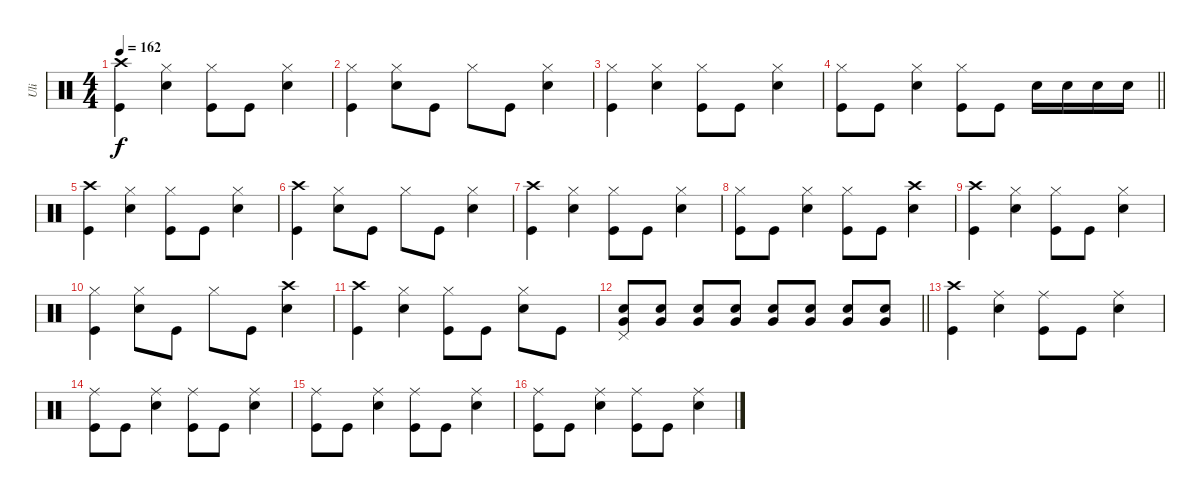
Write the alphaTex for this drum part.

\track ("Uli" "Uli") {instrument percussion}
\staff {score}
\articulation defaults
\ts (4 4)
\tempo 162
\clef neutral
\ks aminor
("Crash high (hit)" "Kick (hit)").4{dy f} ("Hi-Hat (closed)" "Snare (hit) 2").4 ("Hi-Hat (closed)" "Kick (hit)").8 "Kick (hit)".8 ("Hi-Hat (closed)" "Snare (hit) 2").4 |
("Hi-Hat (closed)" "Kick (hit)").4 ("Hi-Hat (closed)" "Snare (hit) 2").8 "Kick (hit)".8 "Hi-Hat (closed)".8 "Kick (hit)".8 ("Hi-Hat (closed)" "Snare (hit) 2").4 |
("Hi-Hat (closed)" "Kick (hit)").4 ("Hi-Hat (closed)" "Snare (hit) 2").4 ("Hi-Hat (closed)" "Kick (hit)").8 "Kick (hit)".8 ("Hi-Hat (closed)" "Snare (hit) 2").4 |
\barLineRight lightlight
("Hi-Hat (closed)" "Kick (hit)").8 "Kick (hit)".8 ("Hi-Hat (closed)" "Snare (hit) 2").4 ("Hi-Hat (closed)" "Kick (hit)").8 "Kick (hit)".8 "Snare (hit) 2".16 "Snare (hit) 2".16 "Snare (hit) 2".16 "Snare (hit) 2".16 |
("Crash high (hit)" "Kick (hit)").4 ("Hi-Hat (closed)" "Snare (hit) 2").4 ("Hi-Hat (closed)" "Kick (hit)").8 "Kick (hit)".8 ("Hi-Hat (closed)" "Snare (hit) 2").4 |
("Crash high (hit)" "Kick (hit)").4 ("Hi-Hat (closed)" "Snare (hit) 2").8 "Kick (hit)".8 "Hi-Hat (closed)".8 "Kick (hit)".8 ("Hi-Hat (closed)" "Snare (hit) 2").4 |
("Crash high (hit)" "Kick (hit)").4 ("Hi-Hat (closed)" "Snare (hit) 2").4 ("Hi-Hat (closed)" "Kick (hit)").8 "Kick (hit)".8 ("Hi-Hat (closed)" "Snare (hit) 2").4 |
("Hi-Hat (closed)" "Kick (hit)").8 "Kick (hit)".8 ("Hi-Hat (closed)" "Snare (hit) 2").4 ("Hi-Hat (closed)" "Kick (hit)").8 "Kick (hit)".8 ("Crash high (hit)" "Snare (hit) 2").4 |
("Crash high (hit)" "Kick (hit)").4 ("Hi-Hat (closed)" "Snare (hit) 2").4 ("Hi-Hat (closed)" "Kick (hit)").8 "Kick (hit)".8 ("Hi-Hat (closed)" "Snare (hit) 2").4 |
("Hi-Hat (closed)" "Kick (hit)").4 ("Hi-Hat (closed)" "Snare (hit) 2").8 "Kick (hit)".8 "Hi-Hat (closed)".8 "Kick (hit)".8 ("Crash high (hit)" "Snare (hit) 2").4 |
("Crash high (hit)" "Kick (hit)").4 ("Hi-Hat (closed)" "Snare (hit) 2").4 ("Hi-Hat (closed)" "Kick (hit)").8 "Kick (hit)".8 ("Hi-Hat (closed)" "Snare (hit) 2").8 "Kick (hit)".8 |
\barLineRight lightlight
("Snare (hit) 2" "Very Low Tom (hit)" "Pedal Hi-Hat (hit)").8 ("Snare (hit) 2" "Very Low Tom (hit)").8 ("Snare (hit) 2" "Very Low Tom (hit)").8 ("Snare (hit) 2" "Very Low Tom (hit)").8 ("Snare (hit) 2" "Very Low Tom (hit)").8 ("Snare (hit) 2" "Very Low Tom (hit)").8 ("Snare (hit) 2" "Very Low Tom (hit)").8 ("Snare (hit) 2" "Very Low Tom (hit)").8 |
("Crash high (hit)" "Kick (hit)").4 ("Ride (middle)" "Snare (hit) 2").4 ("Ride (middle)" "Kick (hit)").8 "Kick (hit)".8 ("Ride (middle)" "Snare (hit) 2").4 |
("Ride (middle)" "Kick (hit)").8 "Kick (hit)".8 ("Ride (middle)" "Snare (hit) 2").4 ("Ride (middle)" "Kick (hit)").8 "Kick (hit)".8 ("Ride (middle)" "Snare (hit) 2").4 |
("Ride (middle)" "Kick (hit)").8 "Kick (hit)".8 ("Ride (middle)" "Snare (hit) 2").4 ("Ride (middle)" "Kick (hit)").8 "Kick (hit)".8 ("Ride (middle)" "Snare (hit) 2").4 |
("Ride (middle)" "Kick (hit)").8 "Kick (hit)".8 ("Ride (middle)" "Snare (hit) 2").4 ("Ride (middle)" "Kick (hit)").8 "Kick (hit)".8 ("Ride (middle)" "Snare (hit) 2").4
